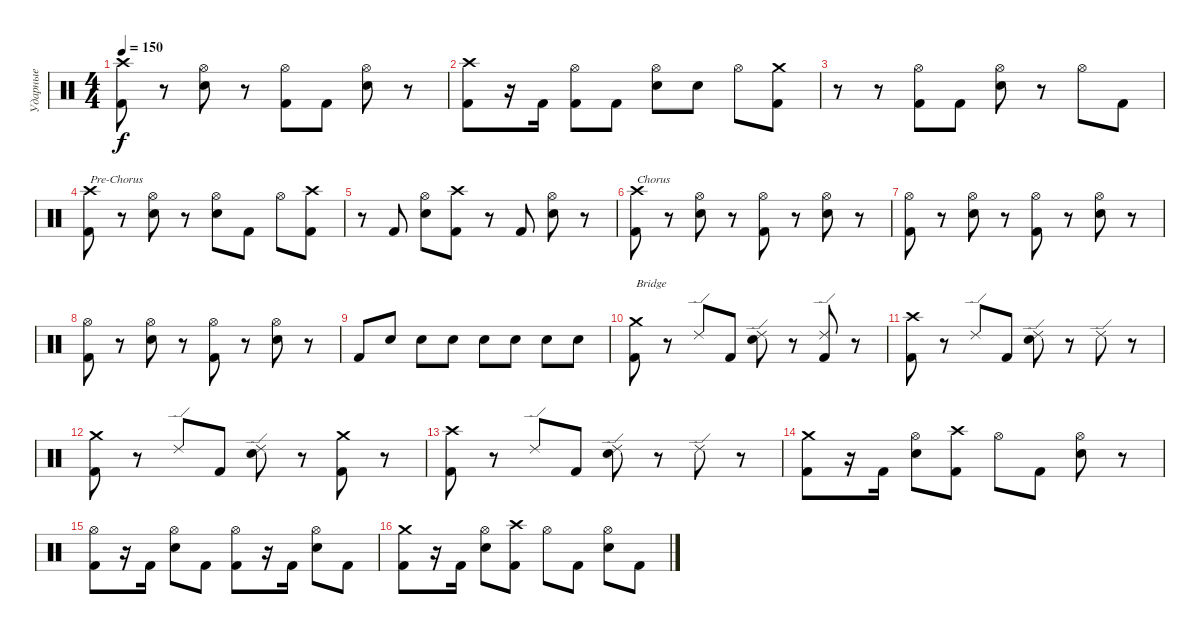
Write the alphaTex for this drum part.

\track ("Ударные" "Ударные") {instrument percussion}
\staff
\articulation defaults
\ts (4 4)
\tempo 150
\clef neutral
\ks c
("Kick (hit) 2" "Crash high (hit)").8{dy f} r.8 ("Snare (hit) 2" "Hi-Hat (open)").8 r.8 ("Kick (hit) 2" "Hi-Hat (open)").8 "Kick (hit) 2".8 ("Snare (hit) 2" "Hi-Hat (open)").8 r.8 |
("Kick (hit) 2" "Crash high (hit)").8 r.16 "Kick (hit) 2".16 ("Kick (hit) 2" "Hi-Hat (open)").8 "Kick (hit) 2".8 ("Snare (hit) 2" "Hi-Hat (open)").8 "Snare (hit) 2".8 "Hi-Hat (open)".8 ("Kick (hit) 2" "Crash medium (hit)").8 |
r.8 r.8 ("Kick (hit) 2" "Hi-Hat (open)").8 "Kick (hit) 2".8 ("Snare (hit) 2" "Hi-Hat (open)").8 r.8 "Hi-Hat (open)".8 "Kick (hit) 2".8 |
("Kick (hit) 2" "Crash high (hit)").8{txt "Pre-Chorus"} r.8 ("Snare (hit) 2" "Hi-Hat (open)").8 r.8 ("Snare (hit) 2" "Hi-Hat (open)").8 "Kick (hit) 2".8 "Hi-Hat (open)".8 ("Kick (hit) 2" "Crash high (hit)").8 |
r.8 "Kick (hit) 2".8 ("Snare (hit) 2" "Hi-Hat (open)").8 ("Kick (hit) 2" "Crash high (hit)").8 r.8 "Kick (hit) 2".8 ("Snare (hit) 2" "Hi-Hat (open)").8 r.8 |
("Kick (hit) 2" "Crash high (hit)").8{txt "Chorus"} r.8 ("Snare (hit) 2" "Hi-Hat (open)").8 r.8 ("Kick (hit) 2" "Hi-Hat (open)").8 r.8 ("Snare (hit) 2" "Hi-Hat (open)").8 r.8 |
("Kick (hit) 2" "Hi-Hat (open)").8 r.8 ("Snare (hit) 2" "Hi-Hat (open)").8 r.8 ("Kick (hit) 2" "Hi-Hat (open)").8 r.8 ("Snare (hit) 2" "Hi-Hat (open)").8 r.8 |
("Kick (hit) 2" "Hi-Hat (open)").8 r.8 ("Snare (hit) 2" "Hi-Hat (open)").8 r.8 ("Kick (hit) 2" "Hi-Hat (open)").8 r.8 ("Snare (hit) 2" "Hi-Hat (open)").8 r.8 |
"Kick (hit) 2".8 "Snare (hit) 2".8 "Snare (hit) 2".8 "Snare (hit) 2".8 "Snare (hit) 2".8 "Snare (hit) 2".8 "Snare (hit) 2".8 "Snare (hit) 2".8 |
("Kick (hit) 2" "Crash medium (hit)").8{txt "Bridge"} r.8 "Ride (edge) 2".8 "Kick (hit) 2".8 ("Snare (hit) 2" "Ride (edge) 2").8 r.8 ("Kick (hit) 2" "Ride (edge) 2").8 r.8 |
("Kick (hit) 2" "Crash high (hit)").8 r.8 "Ride (edge) 2".8 "Kick (hit) 2".8 ("Snare (hit) 2" "Ride (edge) 2").8 r.8 "Ride (edge) 2".8 r.8 |
("Kick (hit) 2" "Crash medium (hit)").8 r.8 "Ride (edge) 2".8 "Kick (hit) 2".8 ("Snare (hit) 2" "Ride (edge) 2").8 r.8 ("Kick (hit) 2" "Crash medium (hit)").8 r.8 |
("Kick (hit) 2" "Crash high (hit)").8 r.8 "Ride (edge) 2".8 "Kick (hit) 2".8 ("Snare (hit) 2" "Ride (edge) 2").8 r.8 "Ride (edge) 2".8 r.8 |
("Kick (hit) 2" "Crash medium (hit)").8 r.16 "Kick (hit) 2".16 ("Snare (hit) 2" "Hi-Hat (open)").8 ("Kick (hit) 2" "Crash high (hit)").8 "Hi-Hat (open)".8 "Kick (hit) 2".8 ("Snare (hit) 2" "Hi-Hat (open)").8 r.8 |
("Kick (hit) 2" "Hi-Hat (open)").8 r.16 "Kick (hit) 2".16 ("Snare (hit) 2" "Hi-Hat (open)").8 "Kick (hit) 2".8 ("Kick (hit) 2" "Hi-Hat (open)").8 r.16 "Kick (hit) 2".16 ("Snare (hit) 2" "Hi-Hat (open)").8 "Kick (hit) 2".8 |
("Kick (hit) 2" "Crash medium (hit)").8 r.16 "Kick (hit) 2".16 ("Snare (hit) 2" "Hi-Hat (open)").8 ("Kick (hit) 2" "Crash high (hit)").8 "Hi-Hat (open)".8 "Kick (hit) 2".8 ("Snare (hit) 2" "Hi-Hat (open)").8 "Kick (hit) 2".8
